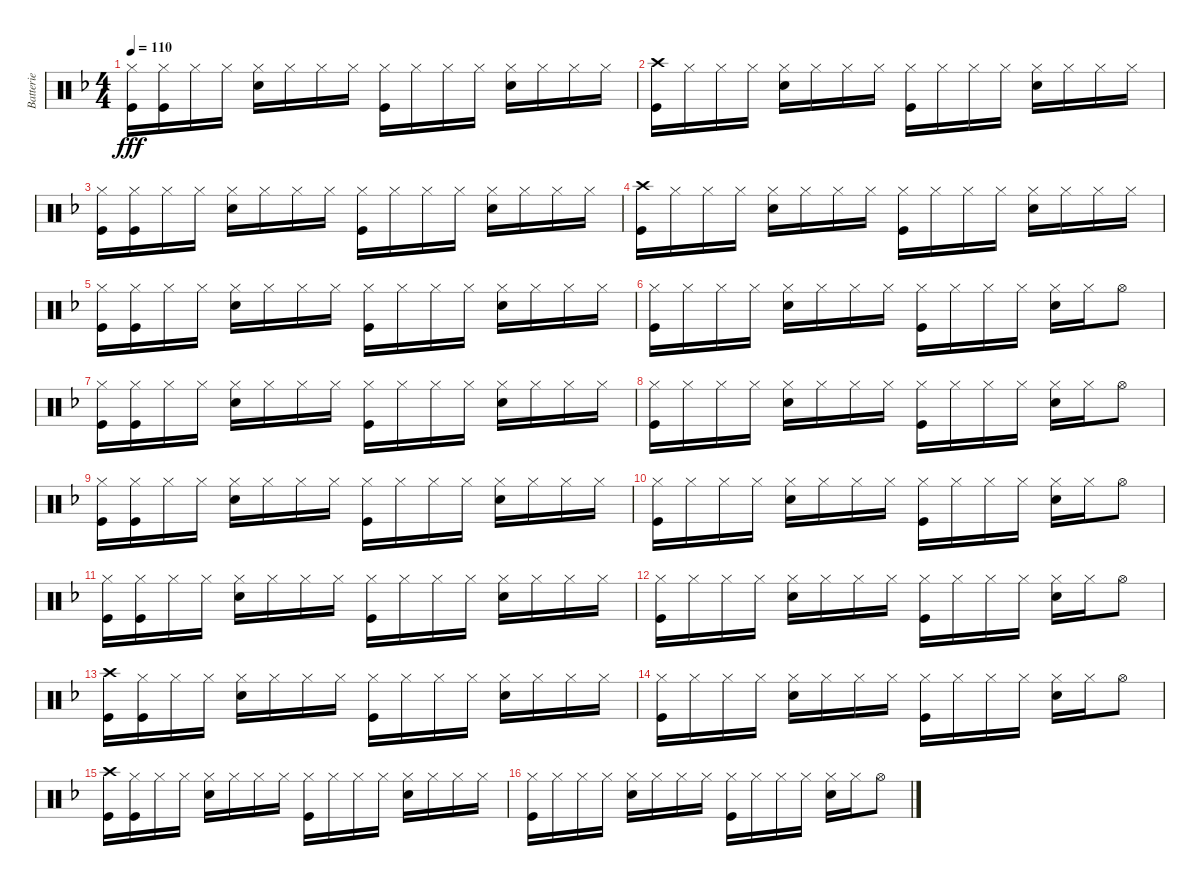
\track ("Batterie" "Batterie") {instrument percussion}
\staff {score}
\articulation defaults
\ts (4 4)
\tempo 110
\clef neutral
\ks f
("Hi-Hat (closed)" "Kick (hit)").16{dy fff} ("Hi-Hat (closed)" "Kick (hit)").16 "Hi-Hat (closed)".16 "Hi-Hat (closed)".16 ("Hi-Hat (closed)" "Snare (hit) 2").16 "Hi-Hat (closed)".16 "Hi-Hat (closed)".16 "Hi-Hat (closed)".16 ("Hi-Hat (closed)" "Kick (hit)").16 "Hi-Hat (closed)".16 "Hi-Hat (closed)".16 "Hi-Hat (closed)".16 ("Hi-Hat (closed)" "Snare (hit) 2").16 "Hi-Hat (closed)".16 "Hi-Hat (closed)".16 "Hi-Hat (closed)".16 |
("Crash high (hit)" "Kick (hit)").16 "Hi-Hat (closed)".16 "Hi-Hat (closed)".16 "Hi-Hat (closed)".16 ("Hi-Hat (closed)" "Snare (hit) 2").16 "Hi-Hat (closed)".16 "Hi-Hat (closed)".16 "Hi-Hat (closed)".16 ("Hi-Hat (closed)" "Kick (hit)").16 "Hi-Hat (closed)".16 "Hi-Hat (closed)".16 "Hi-Hat (closed)".16 ("Hi-Hat (closed)" "Snare (hit) 2").16 "Hi-Hat (closed)".16 "Hi-Hat (closed)".16 "Hi-Hat (closed)".16 |
("Hi-Hat (closed)" "Kick (hit)").16 ("Hi-Hat (closed)" "Kick (hit)").16 "Hi-Hat (closed)".16 "Hi-Hat (closed)".16 ("Hi-Hat (closed)" "Snare (hit) 2").16 "Hi-Hat (closed)".16 "Hi-Hat (closed)".16 "Hi-Hat (closed)".16 ("Hi-Hat (closed)" "Kick (hit)").16 "Hi-Hat (closed)".16 "Hi-Hat (closed)".16 "Hi-Hat (closed)".16 ("Hi-Hat (closed)" "Snare (hit) 2").16 "Hi-Hat (closed)".16 "Hi-Hat (closed)".16 "Hi-Hat (closed)".16 |
("Crash high (hit)" "Kick (hit)").16 "Hi-Hat (closed)".16 "Hi-Hat (closed)".16 "Hi-Hat (closed)".16 ("Hi-Hat (closed)" "Snare (hit) 2").16 "Hi-Hat (closed)".16 "Hi-Hat (closed)".16 "Hi-Hat (closed)".16 ("Hi-Hat (closed)" "Kick (hit)").16 "Hi-Hat (closed)".16 "Hi-Hat (closed)".16 "Hi-Hat (closed)".16 ("Hi-Hat (closed)" "Snare (hit) 2").16 "Hi-Hat (closed)".16 "Hi-Hat (closed)".16 "Hi-Hat (closed)".16 |
("Hi-Hat (closed)" "Kick (hit)").16 ("Hi-Hat (closed)" "Kick (hit)").16 "Hi-Hat (closed)".16 "Hi-Hat (closed)".16 ("Hi-Hat (closed)" "Snare (hit) 2").16 "Hi-Hat (closed)".16 "Hi-Hat (closed)".16 "Hi-Hat (closed)".16 ("Hi-Hat (closed)" "Kick (hit)").16 "Hi-Hat (closed)".16 "Hi-Hat (closed)".16 "Hi-Hat (closed)".16 ("Hi-Hat (closed)" "Snare (hit) 2").16 "Hi-Hat (closed)".16 "Hi-Hat (closed)".16 "Hi-Hat (closed)".16 |
("Hi-Hat (closed)" "Kick (hit)").16 "Hi-Hat (closed)".16 "Hi-Hat (closed)".16 "Hi-Hat (closed)".16 ("Hi-Hat (closed)" "Snare (hit) 2").16 "Hi-Hat (closed)".16 "Hi-Hat (closed)".16 "Hi-Hat (closed)".16 ("Hi-Hat (closed)" "Kick (hit)").16 "Hi-Hat (closed)".16 "Hi-Hat (closed)".16 "Hi-Hat (closed)".16 ("Hi-Hat (closed)" "Snare (hit) 2").16 "Hi-Hat (closed)".16 "Hi-Hat (open)".8 |
("Hi-Hat (closed)" "Kick (hit)").16 ("Hi-Hat (closed)" "Kick (hit)").16 "Hi-Hat (closed)".16 "Hi-Hat (closed)".16 ("Hi-Hat (closed)" "Snare (hit) 2").16 "Hi-Hat (closed)".16 "Hi-Hat (closed)".16 "Hi-Hat (closed)".16 ("Hi-Hat (closed)" "Kick (hit)").16 "Hi-Hat (closed)".16 "Hi-Hat (closed)".16 "Hi-Hat (closed)".16 ("Hi-Hat (closed)" "Snare (hit) 2").16 "Hi-Hat (closed)".16 "Hi-Hat (closed)".16 "Hi-Hat (closed)".16 |
("Hi-Hat (closed)" "Kick (hit)").16 "Hi-Hat (closed)".16 "Hi-Hat (closed)".16 "Hi-Hat (closed)".16 ("Hi-Hat (closed)" "Snare (hit) 2").16 "Hi-Hat (closed)".16 "Hi-Hat (closed)".16 "Hi-Hat (closed)".16 ("Hi-Hat (closed)" "Kick (hit)").16 "Hi-Hat (closed)".16 "Hi-Hat (closed)".16 "Hi-Hat (closed)".16 ("Hi-Hat (closed)" "Snare (hit) 2").16 "Hi-Hat (closed)".16 "Hi-Hat (open)".8 |
("Hi-Hat (closed)" "Kick (hit)").16 ("Hi-Hat (closed)" "Kick (hit)").16 "Hi-Hat (closed)".16 "Hi-Hat (closed)".16 ("Hi-Hat (closed)" "Snare (hit) 2").16 "Hi-Hat (closed)".16 "Hi-Hat (closed)".16 "Hi-Hat (closed)".16 ("Hi-Hat (closed)" "Kick (hit)").16 "Hi-Hat (closed)".16 "Hi-Hat (closed)".16 "Hi-Hat (closed)".16 ("Hi-Hat (closed)" "Snare (hit) 2").16 "Hi-Hat (closed)".16 "Hi-Hat (closed)".16 "Hi-Hat (closed)".16 |
("Hi-Hat (closed)" "Kick (hit)").16 "Hi-Hat (closed)".16 "Hi-Hat (closed)".16 "Hi-Hat (closed)".16 ("Hi-Hat (closed)" "Snare (hit) 2").16 "Hi-Hat (closed)".16 "Hi-Hat (closed)".16 "Hi-Hat (closed)".16 ("Hi-Hat (closed)" "Kick (hit)").16 "Hi-Hat (closed)".16 "Hi-Hat (closed)".16 "Hi-Hat (closed)".16 ("Hi-Hat (closed)" "Snare (hit) 2").16 "Hi-Hat (closed)".16 "Hi-Hat (open)".8 |
("Hi-Hat (closed)" "Kick (hit)").16 ("Hi-Hat (closed)" "Kick (hit)").16 "Hi-Hat (closed)".16 "Hi-Hat (closed)".16 ("Hi-Hat (closed)" "Snare (hit) 2").16 "Hi-Hat (closed)".16 "Hi-Hat (closed)".16 "Hi-Hat (closed)".16 ("Hi-Hat (closed)" "Kick (hit)").16 "Hi-Hat (closed)".16 "Hi-Hat (closed)".16 "Hi-Hat (closed)".16 ("Hi-Hat (closed)" "Snare (hit) 2").16 "Hi-Hat (closed)".16 "Hi-Hat (closed)".16 "Hi-Hat (closed)".16 |
("Hi-Hat (closed)" "Kick (hit)").16 "Hi-Hat (closed)".16 "Hi-Hat (closed)".16 "Hi-Hat (closed)".16 ("Hi-Hat (closed)" "Snare (hit) 2").16 "Hi-Hat (closed)".16 "Hi-Hat (closed)".16 "Hi-Hat (closed)".16 ("Hi-Hat (closed)" "Kick (hit)").16 "Hi-Hat (closed)".16 "Hi-Hat (closed)".16 "Hi-Hat (closed)".16 ("Hi-Hat (closed)" "Snare (hit) 2").16 "Hi-Hat (closed)".16 "Hi-Hat (open)".8 |
("Crash high (hit)" "Kick (hit)").16 ("Hi-Hat (closed)" "Kick (hit)").16 "Hi-Hat (closed)".16 "Hi-Hat (closed)".16 ("Hi-Hat (closed)" "Snare (hit) 2").16 "Hi-Hat (closed)".16 "Hi-Hat (closed)".16 "Hi-Hat (closed)".16 ("Hi-Hat (closed)" "Kick (hit)").16 "Hi-Hat (closed)".16 "Hi-Hat (closed)".16 "Hi-Hat (closed)".16 ("Hi-Hat (closed)" "Snare (hit) 2").16 "Hi-Hat (closed)".16 "Hi-Hat (closed)".16 "Hi-Hat (closed)".16 |
("Hi-Hat (closed)" "Kick (hit)").16 "Hi-Hat (closed)".16 "Hi-Hat (closed)".16 "Hi-Hat (closed)".16 ("Hi-Hat (closed)" "Snare (hit) 2").16 "Hi-Hat (closed)".16 "Hi-Hat (closed)".16 "Hi-Hat (closed)".16 ("Hi-Hat (closed)" "Kick (hit)").16 "Hi-Hat (closed)".16 "Hi-Hat (closed)".16 "Hi-Hat (closed)".16 ("Hi-Hat (closed)" "Snare (hit) 2").16 "Hi-Hat (closed)".16 "Hi-Hat (open)".8 |
("Crash high (hit)" "Kick (hit)").16 ("Hi-Hat (closed)" "Kick (hit)").16 "Hi-Hat (closed)".16 "Hi-Hat (closed)".16 ("Hi-Hat (closed)" "Snare (hit) 2").16 "Hi-Hat (closed)".16 "Hi-Hat (closed)".16 "Hi-Hat (closed)".16 ("Hi-Hat (closed)" "Kick (hit)").16 "Hi-Hat (closed)".16 "Hi-Hat (closed)".16 "Hi-Hat (closed)".16 ("Hi-Hat (closed)" "Snare (hit) 2").16 "Hi-Hat (closed)".16 "Hi-Hat (closed)".16 "Hi-Hat (closed)".16 |
("Hi-Hat (closed)" "Kick (hit)").16 "Hi-Hat (closed)".16 "Hi-Hat (closed)".16 "Hi-Hat (closed)".16 ("Hi-Hat (closed)" "Snare (hit) 2").16 "Hi-Hat (closed)".16 "Hi-Hat (closed)".16 "Hi-Hat (closed)".16 ("Hi-Hat (closed)" "Kick (hit)").16 "Hi-Hat (closed)".16 "Hi-Hat (closed)".16 "Hi-Hat (closed)".16 ("Hi-Hat (closed)" "Snare (hit) 2").16 "Hi-Hat (closed)".16 "Hi-Hat (open)".8
